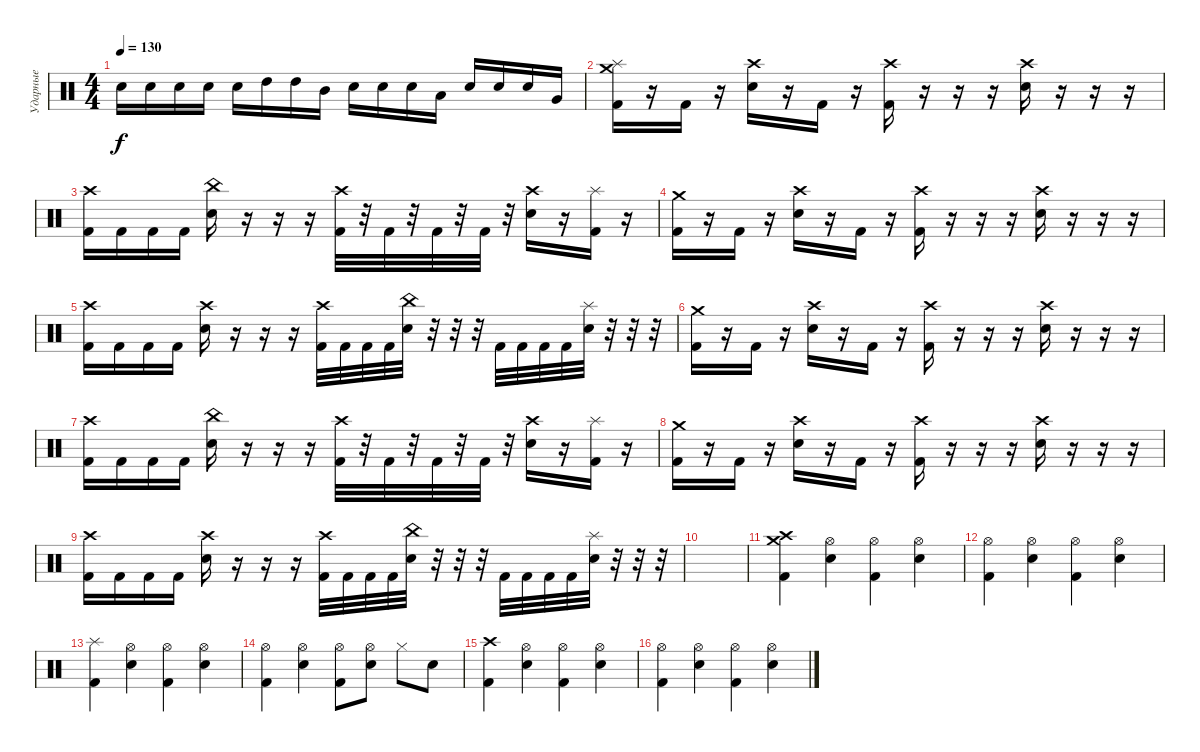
\track ("Ударные" "Ударные") {instrument percussion}
\staff {score}
\articulation defaults
\ts (4 4)
\tempo 130
\clef neutral
\ks c "Electric Snare (hit)".16{dy f} "Electric Snare (hit)".16 "Electric Snare (hit)".16 "Electric Snare (hit)".16 "Electric Snare (hit)".16 "High Tom (hit)".16 "High Tom (hit)".16 "Mid Tom (hit)".16 "Electric Snare (hit)".16 "Electric Snare (hit)".16 "Electric Snare (hit)".16 "Low Tom (hit)".16 "Electric Snare (hit)".16 "Electric Snare (hit)".16 "Electric Snare (hit)".16 "Very Low Tom (hit)".16
|
("Kick (hit) 2" "Splash (hit)" "Crash medium (hit)").16 r.16 "Kick (hit) 2".16 r.16 ("Electric Snare (hit)" "Crash high (hit)").16 r.16 "Kick (hit) 2".16 r.16 ("Kick (hit) 2" "Crash high (hit)").16 r.16 r.16 r.16 ("Electric Snare (hit)" "Crash high (hit)").16 r.16 r.16 r.16 |
("Kick (hit) 2" "Crash high (hit)").16 "Kick (hit) 2".16 "Kick (hit) 2".16 "Kick (hit) 2".16 ("Electric Snare (hit)" "China (hit)").16 r.16 r.16 r.16 ("Kick (hit) 2" "Crash high (hit)").32 r.32 "Kick (hit) 2".32 r.32 "Kick (hit) 2".32 r.32 "Kick (hit) 2".32 r.32 ("Electric Snare (hit)" "Crash high (hit)").16 r.16 ("Kick (hit) 2" "Splash (hit)").16 r.16 |
("Kick (hit) 2" "Crash medium (hit)").16 r.16 "Kick (hit) 2".16 r.16 ("Electric Snare (hit)" "Crash high (hit)").16 r.16 "Kick (hit) 2".16 r.16 ("Kick (hit) 2" "Crash high (hit)").16 r.16 r.16 r.16 ("Electric Snare (hit)" "Crash high (hit)").16 r.16 r.16 r.16 |
("Kick (hit) 2" "Crash high (hit)").16 "Kick (hit) 2".16 "Kick (hit) 2".16 "Kick (hit) 2".16 ("Electric Snare (hit)" "Crash high (hit)").16 r.16 r.16 r.16 ("Kick (hit) 2" "Crash high (hit)").32 "Kick (hit) 2".32 "Kick (hit) 2".32 "Kick (hit) 2".32 ("Electric Snare (hit)" "China (hit)").32 r.32 r.32 r.32 "Kick (hit) 2".32 "Kick (hit) 2".32 "Kick (hit) 2".32 "Kick (hit) 2".32 ("Electric Snare (hit)" "Splash (hit)").32 r.32 r.32 r.32 |
("Kick (hit) 2" "Crash medium (hit)").16 r.16 "Kick (hit) 2".16 r.16 ("Electric Snare (hit)" "Crash high (hit)").16 r.16 "Kick (hit) 2".16 r.16 ("Kick (hit) 2" "Crash high (hit)").16 r.16 r.16 r.16 ("Electric Snare (hit)" "Crash high (hit)").16 r.16 r.16 r.16 |
("Kick (hit) 2" "Crash high (hit)").16 "Kick (hit) 2".16 "Kick (hit) 2".16 "Kick (hit) 2".16 ("Electric Snare (hit)" "China (hit)").16 r.16 r.16 r.16 ("Kick (hit) 2" "Crash high (hit)").32 r.32 "Kick (hit) 2".32 r.32 "Kick (hit) 2".32 r.32 "Kick (hit) 2".32 r.32 ("Electric Snare (hit)" "Crash high (hit)").16 r.16 ("Kick (hit) 2" "Splash (hit)").16 r.16 |
("Kick (hit) 2" "Crash medium (hit)").16 r.16 "Kick (hit) 2".16 r.16 ("Electric Snare (hit)" "Crash high (hit)").16 r.16 "Kick (hit) 2".16 r.16 ("Kick (hit) 2" "Crash high (hit)").16 r.16 r.16 r.16 ("Electric Snare (hit)" "Crash high (hit)").16 r.16 r.16 r.16 |
("Kick (hit) 2" "Crash high (hit)").16 "Kick (hit) 2".16 "Kick (hit) 2".16 "Kick (hit) 2".16 ("Electric Snare (hit)" "Crash high (hit)").16 r.16 r.16 r.16 ("Kick (hit) 2" "Crash high (hit)").32 "Kick (hit) 2".32 "Kick (hit) 2".32 "Kick (hit) 2".32 ("Electric Snare (hit)" "China (hit)").32 r.32 r.32 r.32 "Kick (hit) 2".32 "Kick (hit) 2".32 "Kick (hit) 2".32 "Kick (hit) 2".32 ("Electric Snare (hit)" "Splash (hit)").32 r.32 r.32 r.32 |
|
("Kick (hit) 2" "Crash high (hit)" "Crash medium (hit)").4 ("Electric Snare (hit)" "Hi-Hat (open)").4 ("Kick (hit) 2" "Hi-Hat (open)").4 ("Electric Snare (hit)" "Hi-Hat (open)").4 |
("Kick (hit) 2" "Hi-Hat (open)").4 ("Electric Snare (hit)" "Hi-Hat (open)").4 ("Kick (hit) 2" "Hi-Hat (open)").4 ("Electric Snare (hit)" "Hi-Hat (open)").4 |
("Kick (hit) 2" "Splash (hit)").4 ("Electric Snare (hit)" "Hi-Hat (open)").4 ("Kick (hit) 2" "Hi-Hat (open)").4 ("Electric Snare (hit)" "Hi-Hat (open)").4 |
("Kick (hit) 2" "Hi-Hat (open)").4 ("Electric Snare (hit)" "Hi-Hat (open)").4 ("Kick (hit) 2" "Hi-Hat (open)").8 ("Electric Snare (hit)" "Hi-Hat (open)").8 "Hi-Hat (closed)".8 "Electric Snare (hit)".8 |
("Kick (hit) 2" "Crash high (hit)").4 ("Electric Snare (hit)" "Hi-Hat (open)").4 ("Kick (hit) 2" "Hi-Hat (open)").4 ("Electric Snare (hit)" "Hi-Hat (open)").4 |
("Kick (hit) 2" "Hi-Hat (open)").4 ("Electric Snare (hit)" "Hi-Hat (open)").4 ("Kick (hit) 2" "Hi-Hat (open)").4 ("Electric Snare (hit)" "Hi-Hat (open)").4
